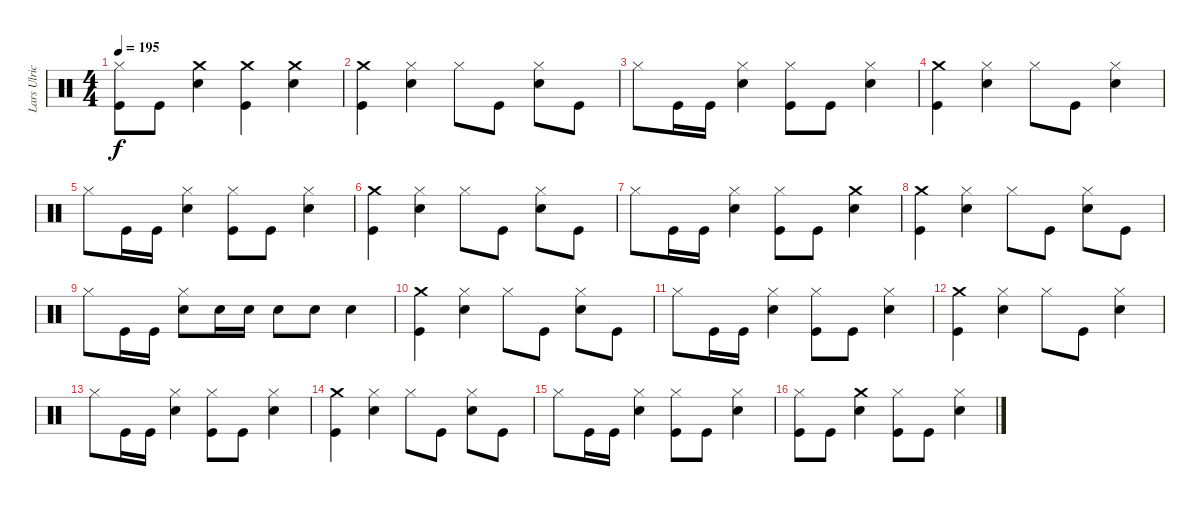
\track ("Lars Ulrich (Drums)" "Lars Ulric") {instrument percussion}
\staff {score}
\articulation defaults
\ts (4 4)
\tempo 195
\clef neutral
\ks c
("Kick (hit)" "Hi-Hat (closed)").8{dy f} "Kick (hit)".8 ("Crash medium (hit)" "Snare (hit) 2").4 ("Kick (hit)" "Crash medium (hit)").4 ("Snare (hit) 2" "Crash medium (hit)").4 |
("Kick (hit)" "Crash medium (hit)").4 ("Snare (hit) 2" "Hi-Hat (closed)").4 "Hi-Hat (closed)".8 "Kick (hit)".8 ("Snare (hit) 2" "Hi-Hat (closed)").8 "Kick (hit)".8 |
"Hi-Hat (closed)".8 "Kick (hit)".16 "Kick (hit)".16 ("Snare (hit) 2" "Hi-Hat (closed)").4 ("Kick (hit)" "Hi-Hat (closed)").8 "Kick (hit)".8 ("Snare (hit) 2" "Hi-Hat (closed)").4 |
("Kick (hit)" "Crash medium (hit)").4 ("Hi-Hat (closed)" "Snare (hit) 2").4 "Hi-Hat (closed)".8 "Kick (hit)".8 ("Snare (hit) 2" "Hi-Hat (closed)").4 |
"Hi-Hat (closed)".8 "Kick (hit)".16 "Kick (hit)".16 ("Snare (hit) 2" "Hi-Hat (closed)").4 ("Kick (hit)" "Hi-Hat (closed)").8 "Kick (hit)".8 ("Hi-Hat (closed)" "Snare (hit) 2").4 |
("Kick (hit)" "Crash medium (hit)").4 ("Hi-Hat (closed)" "Snare (hit) 2").4 "Hi-Hat (closed)".8 "Kick (hit)".8 ("Snare (hit) 2" "Hi-Hat (closed)").8 "Kick (hit)".8 |
"Hi-Hat (closed)".8 "Kick (hit)".16 "Kick (hit)".16 ("Snare (hit) 2" "Hi-Hat (closed)").4 ("Kick (hit)" "Hi-Hat (closed)").8 "Kick (hit)".8 ("Crash medium (hit)" "Snare (hit) 2").4 |
("Kick (hit)" "Crash medium (hit)").4 ("Hi-Hat (closed)" "Snare (hit) 2").4 "Hi-Hat (closed)".8 "Kick (hit)".8 ("Snare (hit) 2" "Hi-Hat (closed)").8 "Kick (hit)".8 |
"Hi-Hat (closed)".8 "Kick (hit)".16 "Kick (hit)".16 ("Snare (hit) 2" "Hi-Hat (closed)").8 "Snare (hit) 2".16 "Snare (hit) 2".16 "Snare (hit) 2".8 "Snare (hit) 2".8 "Snare (hit) 2".4 |
("Kick (hit)" "Crash medium (hit)").4 ("Hi-Hat (closed)" "Snare (hit) 2").4 "Hi-Hat (closed)".8 "Kick (hit)".8 ("Snare (hit) 2" "Hi-Hat (closed)").8 "Kick (hit)".8 |
"Hi-Hat (closed)".8 "Kick (hit)".16 "Kick (hit)".16 ("Snare (hit) 2" "Hi-Hat (closed)").4 ("Kick (hit)" "Hi-Hat (closed)").8 "Kick (hit)".8 ("Snare (hit) 2" "Hi-Hat (closed)").4 |
("Kick (hit)" "Crash medium (hit)").4 ("Hi-Hat (closed)" "Snare (hit) 2").4 "Hi-Hat (closed)".8 "Kick (hit)".8 ("Snare (hit) 2" "Hi-Hat (closed)").4 |
"Hi-Hat (closed)".8 "Kick (hit)".16 "Kick (hit)".16 ("Snare (hit) 2" "Hi-Hat (closed)").4 ("Kick (hit)" "Hi-Hat (closed)").8 "Kick (hit)".8 ("Hi-Hat (closed)" "Snare (hit) 2").4 |
("Kick (hit)" "Crash medium (hit)").4 ("Hi-Hat (closed)" "Snare (hit) 2").4 "Hi-Hat (closed)".8 "Kick (hit)".8 ("Snare (hit) 2" "Hi-Hat (closed)").8 "Kick (hit)".8 |
"Hi-Hat (closed)".8 "Kick (hit)".16 "Kick (hit)".16 ("Snare (hit) 2" "Hi-Hat (closed)").4 ("Kick (hit)" "Hi-Hat (closed)").8 "Kick (hit)".8 ("Snare (hit) 2" "Hi-Hat (closed)").4 |
("Kick (hit)" "Hi-Hat (closed)").8 "Kick (hit)".8 ("Snare (hit) 2" "Crash medium (hit)").4 ("Kick (hit)" "Hi-Hat (closed)").8 "Kick (hit)".8 ("Snare (hit) 2" "Hi-Hat (closed)").4
